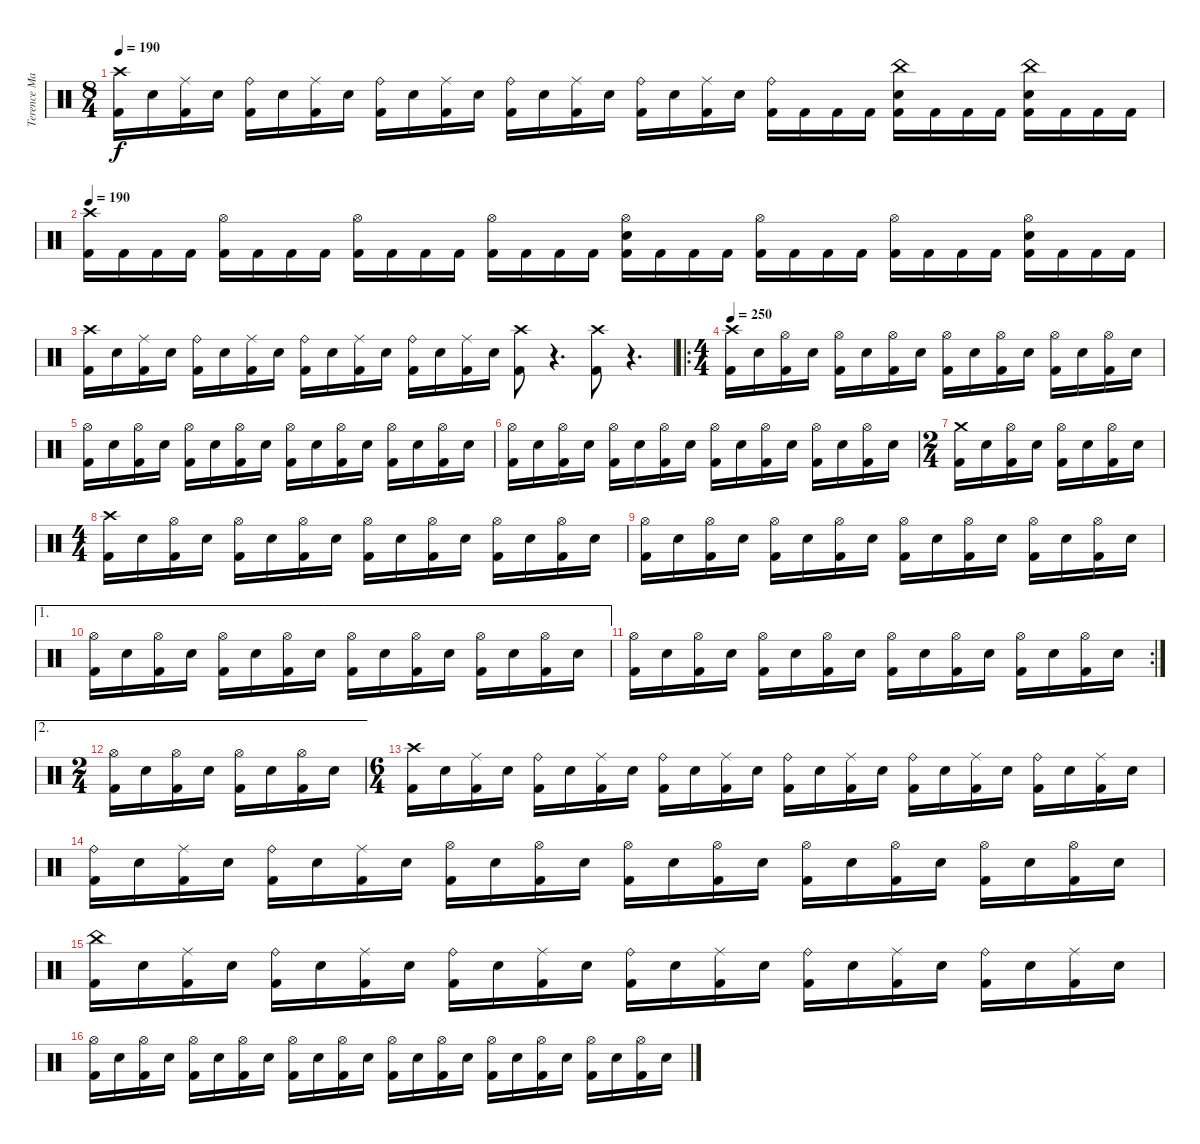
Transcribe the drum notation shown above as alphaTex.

\track ("Terence Manauis" "Terence Ma") {instrument percussion}
\staff {score}
\articulation defaults
\ts (8 4)
\tempo 190
\clef neutral
\ks c
("Crash high (hit)" "Kick (hit) 2").16{dy f} "Electric Snare (hit)".16 ("Ride (middle)" "Kick (hit) 2").16 "Electric Snare (hit)".16 ("Ride (bell)" "Kick (hit) 2").16 "Electric Snare (hit)".16 ("Ride (middle)" "Kick (hit) 2").16 "Electric Snare (hit)".16 ("Ride (bell)" "Kick (hit) 2").16 "Electric Snare (hit)".16 ("Ride (middle)" "Kick (hit) 2").16 "Electric Snare (hit)".16 ("Ride (bell)" "Kick (hit) 2").16 "Electric Snare (hit)".16 ("Ride (middle)" "Kick (hit) 2").16 "Electric Snare (hit)".16 ("Ride (bell)" "Kick (hit) 2").16 "Electric Snare (hit)".16 ("Ride (middle)" "Kick (hit) 2").16 "Electric Snare (hit)".16 ("Ride (bell)" "Kick (hit) 2").16 "Kick (hit) 2".16 "Kick (hit) 2".16 "Kick (hit) 2".16 ("China (hit)" "Electric Snare (hit)" "Kick (hit) 2").16 "Kick (hit) 2".16 "Kick (hit) 2".16 "Kick (hit) 2".16 ("China (hit)" "Electric Snare (hit)" "Kick (hit) 2").16 "Kick (hit) 2".16 "Kick (hit) 2".16 "Kick (hit) 2".16 |
\tempo 190
("Crash high (hit)" "Kick (hit) 2").16 "Kick (hit) 2".16 "Kick (hit) 2".16 "Kick (hit) 2".16 ("Hi-Hat (open)" "Kick (hit) 2").16 "Kick (hit) 2".16 "Kick (hit) 2".16 "Kick (hit) 2".16 ("Hi-Hat (open)" "Kick (hit) 2").16 "Kick (hit) 2".16 "Kick (hit) 2".16 "Kick (hit) 2".16 ("Hi-Hat (open)" "Kick (hit) 2").16 "Kick (hit) 2".16 "Kick (hit) 2".16 "Kick (hit) 2".16 ("Hi-Hat (open)" "Electric Snare (hit)" "Kick (hit) 2").16 "Kick (hit) 2".16 "Kick (hit) 2".16 "Kick (hit) 2".16 ("Hi-Hat (open)" "Kick (hit) 2").16 "Kick (hit) 2".16 "Kick (hit) 2".16 "Kick (hit) 2".16 ("Hi-Hat (open)" "Kick (hit) 2").16 "Kick (hit) 2".16 "Kick (hit) 2".16 "Kick (hit) 2".16 ("Hi-Hat (open)" "Electric Snare (hit)" "Kick (hit) 2").16 "Kick (hit) 2".16 "Kick (hit) 2".16 "Kick (hit) 2".16 |
("Crash high (hit)" "Kick (hit) 2").16 "Electric Snare (hit)".16 ("Ride (middle)" "Kick (hit) 2").16 "Electric Snare (hit)".16 ("Ride (bell)" "Kick (hit) 2").16 "Electric Snare (hit)".16 ("Ride (middle)" "Kick (hit) 2").16 "Electric Snare (hit)".16 ("Ride (bell)" "Kick (hit) 2").16 "Electric Snare (hit)".16 ("Ride (middle)" "Kick (hit) 2").16 "Electric Snare (hit)".16 ("Ride (bell)" "Kick (hit) 2").16 "Electric Snare (hit)".16 ("Ride (middle)" "Kick (hit) 2").16 "Electric Snare (hit)".16 ("Crash high (hit)" "Kick (hit) 2").8{volume 12} r.4{d volume 0} ("Crash high (hit)" "Kick (hit) 2").8{volume 12} r.4{d volume 0} |
\ro
\ts (4 4)
\tempo 250
("Crash high (hit)" "Kick (hit) 2").16{volume 12} "Electric Snare (hit)".16 ("Hi-Hat (open)" "Kick (hit) 2").16 "Electric Snare (hit)".16 ("Hi-Hat (open)" "Kick (hit) 2").16 "Electric Snare (hit)".16 ("Hi-Hat (open)" "Kick (hit) 2").16 "Electric Snare (hit)".16 ("Hi-Hat (open)" "Kick (hit) 2").16 "Electric Snare (hit)".16 ("Hi-Hat (open)" "Kick (hit) 2").16 "Electric Snare (hit)".16 ("Hi-Hat (open)" "Kick (hit) 2").16 "Electric Snare (hit)".16 ("Hi-Hat (open)" "Kick (hit) 2").16 "Electric Snare (hit)".16 |
("Hi-Hat (open)" "Kick (hit) 2").16 "Electric Snare (hit)".16 ("Hi-Hat (open)" "Kick (hit) 2").16 "Electric Snare (hit)".16 ("Hi-Hat (open)" "Kick (hit) 2").16 "Electric Snare (hit)".16 ("Hi-Hat (open)" "Kick (hit) 2").16 "Electric Snare (hit)".16 ("Hi-Hat (open)" "Kick (hit) 2").16 "Electric Snare (hit)".16 ("Hi-Hat (open)" "Kick (hit) 2").16 "Electric Snare (hit)".16 ("Hi-Hat (open)" "Kick (hit) 2").16 "Electric Snare (hit)".16 ("Hi-Hat (open)" "Kick (hit) 2").16 "Electric Snare (hit)".16 |
("Hi-Hat (open)" "Kick (hit) 2").16 "Electric Snare (hit)".16 ("Hi-Hat (open)" "Kick (hit) 2").16 "Electric Snare (hit)".16 ("Hi-Hat (open)" "Kick (hit) 2").16 "Electric Snare (hit)".16 ("Hi-Hat (open)" "Kick (hit) 2").16 "Electric Snare (hit)".16 ("Hi-Hat (open)" "Kick (hit) 2").16 "Electric Snare (hit)".16 ("Hi-Hat (open)" "Kick (hit) 2").16 "Electric Snare (hit)".16 ("Hi-Hat (open)" "Kick (hit) 2").16 "Electric Snare (hit)".16 ("Hi-Hat (open)" "Kick (hit) 2").16 "Electric Snare (hit)".16 |
\ts (2 4)
("Crash medium (hit)" "Kick (hit) 2").16 "Electric Snare (hit)".16 ("Hi-Hat (open)" "Kick (hit) 2").16 "Electric Snare (hit)".16 ("Hi-Hat (open)" "Kick (hit) 2").16 "Electric Snare (hit)".16 ("Hi-Hat (open)" "Kick (hit) 2").16 "Electric Snare (hit)".16 |
\ts (4 4)
("Crash high (hit)" "Kick (hit) 2").16 "Electric Snare (hit)".16 ("Hi-Hat (open)" "Kick (hit) 2").16 "Electric Snare (hit)".16 ("Hi-Hat (open)" "Kick (hit) 2").16 "Electric Snare (hit)".16 ("Hi-Hat (open)" "Kick (hit) 2").16 "Electric Snare (hit)".16 ("Hi-Hat (open)" "Kick (hit) 2").16 "Electric Snare (hit)".16 ("Hi-Hat (open)" "Kick (hit) 2").16 "Electric Snare (hit)".16 ("Hi-Hat (open)" "Kick (hit) 2").16 "Electric Snare (hit)".16 ("Hi-Hat (open)" "Kick (hit) 2").16 "Electric Snare (hit)".16 |
("Hi-Hat (open)" "Kick (hit) 2").16 "Electric Snare (hit)".16 ("Hi-Hat (open)" "Kick (hit) 2").16 "Electric Snare (hit)".16 ("Hi-Hat (open)" "Kick (hit) 2").16 "Electric Snare (hit)".16 ("Hi-Hat (open)" "Kick (hit) 2").16 "Electric Snare (hit)".16 ("Hi-Hat (open)" "Kick (hit) 2").16 "Electric Snare (hit)".16 ("Hi-Hat (open)" "Kick (hit) 2").16 "Electric Snare (hit)".16 ("Hi-Hat (open)" "Kick (hit) 2").16 "Electric Snare (hit)".16 ("Hi-Hat (open)" "Kick (hit) 2").16 "Electric Snare (hit)".16 |
\ae 1
("Hi-Hat (open)" "Kick (hit) 2").16 "Electric Snare (hit)".16 ("Hi-Hat (open)" "Kick (hit) 2").16 "Electric Snare (hit)".16 ("Hi-Hat (open)" "Kick (hit) 2").16 "Electric Snare (hit)".16 ("Hi-Hat (open)" "Kick (hit) 2").16 "Electric Snare (hit)".16 ("Hi-Hat (open)" "Kick (hit) 2").16 "Electric Snare (hit)".16 ("Hi-Hat (open)" "Kick (hit) 2").16 "Electric Snare (hit)".16 ("Hi-Hat (open)" "Kick (hit) 2").16 "Electric Snare (hit)".16 ("Hi-Hat (open)" "Kick (hit) 2").16 "Electric Snare (hit)".16 |
\rc 2
("Hi-Hat (open)" "Kick (hit) 2").16 "Electric Snare (hit)".16 ("Hi-Hat (open)" "Kick (hit) 2").16 "Electric Snare (hit)".16 ("Hi-Hat (open)" "Kick (hit) 2").16 "Electric Snare (hit)".16 ("Hi-Hat (open)" "Kick (hit) 2").16 "Electric Snare (hit)".16 ("Hi-Hat (open)" "Kick (hit) 2").16 "Electric Snare (hit)".16 ("Hi-Hat (open)" "Kick (hit) 2").16 "Electric Snare (hit)".16 ("Hi-Hat (open)" "Kick (hit) 2").16 "Electric Snare (hit)".16 ("Hi-Hat (open)" "Kick (hit) 2").16 "Electric Snare (hit)".16 |
\ae 2
\ts (2 4)
("Hi-Hat (open)" "Kick (hit) 2").16 "Electric Snare (hit)".16 ("Hi-Hat (open)" "Kick (hit) 2").16 "Electric Snare (hit)".16 ("Hi-Hat (open)" "Kick (hit) 2").16 "Electric Snare (hit)".16 ("Hi-Hat (open)" "Kick (hit) 2").16 "Electric Snare (hit)".16 |
\ts (6 4)
("Crash high (hit)" "Kick (hit) 2").16 "Electric Snare (hit)".16 ("Ride (middle)" "Kick (hit) 2").16 "Electric Snare (hit)".16 ("Ride (bell)" "Kick (hit) 2").16 "Electric Snare (hit)".16 ("Ride (middle)" "Kick (hit) 2").16 "Electric Snare (hit)".16 ("Ride (bell)" "Kick (hit) 2").16 "Electric Snare (hit)".16 ("Ride (middle)" "Kick (hit) 2").16 "Electric Snare (hit)".16 ("Ride (bell)" "Kick (hit) 2").16 "Electric Snare (hit)".16 ("Ride (middle)" "Kick (hit) 2").16 "Electric Snare (hit)".16 ("Ride (bell)" "Kick (hit) 2").16 "Electric Snare (hit)".16 ("Ride (middle)" "Kick (hit) 2").16 "Electric Snare (hit)".16 ("Ride (bell)" "Kick (hit) 2").16 "Electric Snare (hit)".16 ("Ride (middle)" "Kick (hit) 2").16 "Electric Snare (hit)".16 |
("Ride (bell)" "Kick (hit) 2").16 "Electric Snare (hit)".16 ("Ride (middle)" "Kick (hit) 2").16 "Electric Snare (hit)".16 ("Ride (bell)" "Kick (hit) 2").16 "Electric Snare (hit)".16 ("Ride (middle)" "Kick (hit) 2").16 "Electric Snare (hit)".16 ("Hi-Hat (open)" "Kick (hit) 2").16 "Electric Snare (hit)".16 ("Hi-Hat (open)" "Kick (hit) 2").16 "Electric Snare (hit)".16 ("Hi-Hat (open)" "Kick (hit) 2").16 "Electric Snare (hit)".16 ("Hi-Hat (open)" "Kick (hit) 2").16 "Electric Snare (hit)".16 ("Hi-Hat (open)" "Kick (hit) 2").16 "Electric Snare (hit)".16 ("Hi-Hat (open)" "Kick (hit) 2").16 "Electric Snare (hit)".16 ("Hi-Hat (open)" "Kick (hit) 2").16 "Electric Snare (hit)".16 ("Hi-Hat (open)" "Kick (hit) 2").16 "Electric Snare (hit)".16 |
("China (hit)" "Kick (hit) 2").16 "Electric Snare (hit)".16 ("Ride (middle)" "Kick (hit) 2").16 "Electric Snare (hit)".16 ("Ride (bell)" "Kick (hit) 2").16 "Electric Snare (hit)".16 ("Ride (middle)" "Kick (hit) 2").16 "Electric Snare (hit)".16 ("Ride (bell)" "Kick (hit) 2").16 "Electric Snare (hit)".16 ("Ride (middle)" "Kick (hit) 2").16 "Electric Snare (hit)".16 ("Ride (bell)" "Kick (hit) 2").16 "Electric Snare (hit)".16 ("Ride (middle)" "Kick (hit) 2").16 "Electric Snare (hit)".16 ("Ride (bell)" "Kick (hit) 2").16 "Electric Snare (hit)".16 ("Ride (middle)" "Kick (hit) 2").16 "Electric Snare (hit)".16 ("Ride (bell)" "Kick (hit) 2").16 "Electric Snare (hit)".16 ("Ride (middle)" "Kick (hit) 2").16 "Electric Snare (hit)".16 |
("Hi-Hat (open)" "Kick (hit) 2").16 "Electric Snare (hit)".16 ("Hi-Hat (open)" "Kick (hit) 2").16 "Electric Snare (hit)".16 ("Hi-Hat (open)" "Kick (hit) 2").16 "Electric Snare (hit)".16 ("Hi-Hat (open)" "Kick (hit) 2").16 "Electric Snare (hit)".16 ("Hi-Hat (open)" "Kick (hit) 2").16 "Electric Snare (hit)".16 ("Hi-Hat (open)" "Kick (hit) 2").16 "Electric Snare (hit)".16 ("Hi-Hat (open)" "Kick (hit) 2").16 "Electric Snare (hit)".16 ("Hi-Hat (open)" "Kick (hit) 2").16 "Electric Snare (hit)".16 ("Hi-Hat (open)" "Kick (hit) 2").16 "Electric Snare (hit)".16 ("Hi-Hat (open)" "Kick (hit) 2").16 "Electric Snare (hit)".16 ("Hi-Hat (open)" "Kick (hit) 2").16 "Electric Snare (hit)".16 ("Hi-Hat (open)" "Kick (hit) 2").16 "Electric Snare (hit)".16
